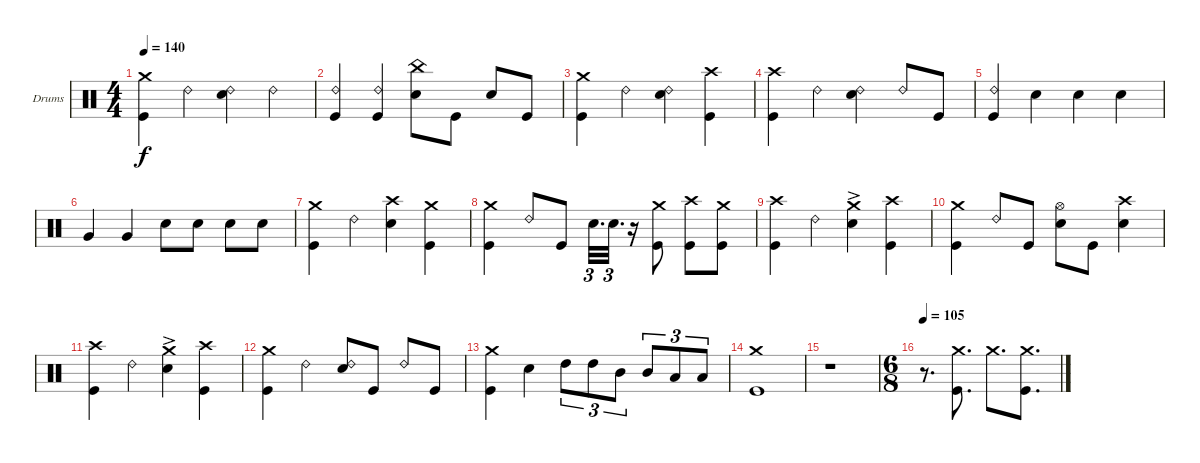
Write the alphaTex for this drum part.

\defaultSystemsLayout 4
\bracketExtendMode groupsimilarinstruments
\firstSystemTrackNameOrientation horizontal
\otherSystemsTrackNameOrientation horizontal
\track ("Stefan Schwarzmann" "Drums") {instrument percussion}
\staff {score}
\articulation defaults
\ts (4 4)
\tempo 140
\clef neutral
\ks c
("Crash medium (hit)" "Kick (hit)").4{dy f} "Ride (bell) 2".4 ("Ride (bell) 2" "Snare (hit) 2").4 "Ride (bell) 2".4 |
("Ride (bell) 2" "Kick (hit)").4 ("Ride (bell) 2" "Kick (hit)").4 ("China (hit)" "Snare (hit) 2").8 "Kick (hit)".8 "Snare (hit) 2".8 "Kick (hit)".8 |
("Crash medium (hit)" "Kick (hit)").4 "Ride (bell) 2".4 ("Ride (bell) 2" "Snare (hit) 2").4 ("Crash high (hit)" "Kick (hit)").4 |
("Crash high (hit)" "Kick (hit)").4 "Ride (bell) 2".4 ("Ride (bell) 2" "Snare (hit) 2").4 "Ride (bell) 2".8 "Kick (hit)".8 |
("Ride (bell) 2" "Kick (hit)").4 "Snare (hit) 2".4 "Snare (hit) 2".4 "Snare (hit) 2".4 |
"Very Low Tom (hit)".4 "Very Low Tom (hit)".4 "Snare (hit) 2".8 "Snare (hit) 2".8 "Snare (hit) 2".8 "Snare (hit) 2".8 |
("Crash medium (hit)" "Kick (hit)").4 "Ride (bell) 2".4 ("Crash high (hit)" "Snare (hit) 2").4 ("Crash medium (hit)" "Kick (hit)").4 |
("Crash medium (hit)" "Kick (hit)").4 "Ride (bell) 2".8 "Kick (hit)".8 "Snare (hit) 2".32{d tu (3 2)} "Snare (hit) 2".32{d tu (3 2)} r.16 ("Crash medium (hit)" "Kick (hit)").8 ("Crash high (hit)" "Kick (hit)").8 ("Crash medium (hit)" "Kick (hit)").8 |
("Crash high (hit)" "Kick (hit)").4 "Ride (bell) 2".4 ("Crash medium (hit)"{ac} "Snare (hit) 2"{ac}).4 ("Crash high (hit)" "Kick (hit)").4 |
("Crash medium (hit)" "Kick (hit)").4 "Ride (bell) 2".8 "Kick (hit)".8 ("Hi-Hat (open)" "Snare (hit) 2").8 "Kick (hit)".8 ("Crash high (hit)" "Snare (hit) 2").4 |
("Crash high (hit)" "Kick (hit)").4 "Ride (bell) 2".4 ("Crash medium (hit)"{ac} "Snare (hit) 2"{ac}).4 ("Crash high (hit)" "Kick (hit)").4 |
("Crash medium (hit)" "Kick (hit)").4 "Ride (bell) 2".4 ("Ride (bell) 2" "Snare (hit) 2").8 "Kick (hit)".8 "Ride (bell) 2".8 "Kick (hit)".8 |
("Crash medium (hit)" "Kick (hit)").4 "Snare (hit) 2".4 "High Tom (hit)".8{tu (3 2)} "High Tom (hit)".8{tu (3 2)} "Mid Tom (hit)".8{tu (3 2)} "Mid Tom (hit)".8{tu (3 2)} "Low Tom (hit)".8{tu (3 2)} "Low Tom (hit)".8{tu (3 2)} |
("Crash medium (hit)" "Kick (hit)").1 |
r.1 |
\ts (6 8)
\tempo 105
r.8{d} ("Crash medium (hit)" "Kick (hit)").8{d} "Crash medium (hit)".8{d} ("Crash medium (hit)" "Kick (hit)").8{d}
